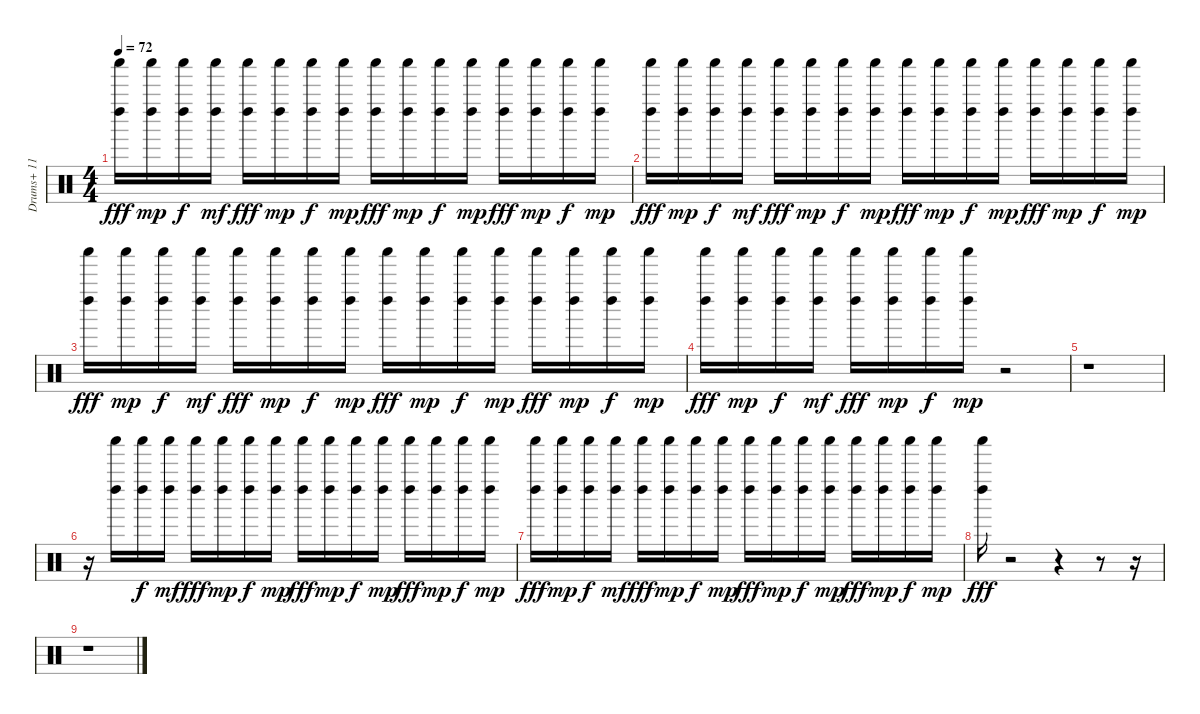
\track ("Drums+ 11" "Drums+ 11") {instrument percussion}
\staff {score}
\articulation defaults
\ts (4 4)
\tempo 72
\clef neutral
\ks c
("Shaker (hit)" "Left Maraca (hit)").16{dy fff} ("Shaker (hit)" "Left Maraca (hit)").16{dy mp} ("Shaker (hit)" "Left Maraca (hit)").16{dy f} ("Shaker (hit)" "Left Maraca (hit)").16{dy mf} ("Shaker (hit)" "Left Maraca (hit)").16{dy fff} ("Shaker (hit)" "Left Maraca (hit)").16{dy mp} ("Shaker (hit)" "Left Maraca (hit)").16{dy f} ("Shaker (hit)" "Left Maraca (hit)").16{dy mp} ("Shaker (hit)" "Left Maraca (hit)").16{dy fff} ("Shaker (hit)" "Left Maraca (hit)").16{dy mp} ("Shaker (hit)" "Left Maraca (hit)").16{dy f} ("Shaker (hit)" "Left Maraca (hit)").16{dy mp} ("Shaker (hit)" "Left Maraca (hit)").16{dy fff} ("Shaker (hit)" "Left Maraca (hit)").16{dy mp} ("Shaker (hit)" "Left Maraca (hit)").16{dy f} ("Shaker (hit)" "Left Maraca (hit)").16{dy mp} |
("Shaker (hit)" "Left Maraca (hit)").16{dy fff} ("Shaker (hit)" "Left Maraca (hit)").16{dy mp} ("Shaker (hit)" "Left Maraca (hit)").16{dy f} ("Shaker (hit)" "Left Maraca (hit)").16{dy mf} ("Shaker (hit)" "Left Maraca (hit)").16{dy fff} ("Shaker (hit)" "Left Maraca (hit)").16{dy mp} ("Shaker (hit)" "Left Maraca (hit)").16{dy f} ("Shaker (hit)" "Left Maraca (hit)").16{dy mp} ("Shaker (hit)" "Left Maraca (hit)").16{dy fff} ("Shaker (hit)" "Left Maraca (hit)").16{dy mp} ("Shaker (hit)" "Left Maraca (hit)").16{dy f} ("Shaker (hit)" "Left Maraca (hit)").16{dy mp} ("Shaker (hit)" "Left Maraca (hit)").16{dy fff} ("Shaker (hit)" "Left Maraca (hit)").16{dy mp} ("Shaker (hit)" "Left Maraca (hit)").16{dy f} ("Shaker (hit)" "Left Maraca (hit)").16{dy mp} |
("Shaker (hit)" "Left Maraca (hit)").16{dy fff} ("Shaker (hit)" "Left Maraca (hit)").16{dy mp} ("Shaker (hit)" "Left Maraca (hit)").16{dy f} ("Shaker (hit)" "Left Maraca (hit)").16{dy mf} ("Shaker (hit)" "Left Maraca (hit)").16{dy fff} ("Shaker (hit)" "Left Maraca (hit)").16{dy mp} ("Shaker (hit)" "Left Maraca (hit)").16{dy f} ("Shaker (hit)" "Left Maraca (hit)").16{dy mp} ("Shaker (hit)" "Left Maraca (hit)").16{dy fff} ("Shaker (hit)" "Left Maraca (hit)").16{dy mp} ("Shaker (hit)" "Left Maraca (hit)").16{dy f} ("Shaker (hit)" "Left Maraca (hit)").16{dy mp} ("Shaker (hit)" "Left Maraca (hit)").16{dy fff} ("Shaker (hit)" "Left Maraca (hit)").16{dy mp} ("Shaker (hit)" "Left Maraca (hit)").16{dy f} ("Shaker (hit)" "Left Maraca (hit)").16{dy mp} |
("Shaker (hit)" "Left Maraca (hit)").16{dy fff} ("Shaker (hit)" "Left Maraca (hit)").16{dy mp} ("Shaker (hit)" "Left Maraca (hit)").16{dy f} ("Shaker (hit)" "Left Maraca (hit)").16{dy mf} ("Shaker (hit)" "Left Maraca (hit)").16{dy fff} ("Shaker (hit)" "Left Maraca (hit)").16{dy mp} ("Shaker (hit)" "Left Maraca (hit)").16{dy f} ("Shaker (hit)" "Left Maraca (hit)").16{dy mp} r.2 |
r.1 |
r.16 ("Shaker (hit)" "Left Maraca (hit)").16 ("Shaker (hit)" "Left Maraca (hit)").16{dy f} ("Shaker (hit)" "Left Maraca (hit)").16{dy mf} ("Shaker (hit)" "Left Maraca (hit)").16{dy fff} ("Shaker (hit)" "Left Maraca (hit)").16{dy mp} ("Shaker (hit)" "Left Maraca (hit)").16{dy f} ("Shaker (hit)" "Left Maraca (hit)").16{dy mp} ("Shaker (hit)" "Left Maraca (hit)").16{dy fff} ("Shaker (hit)" "Left Maraca (hit)").16{dy mp} ("Shaker (hit)" "Left Maraca (hit)").16{dy f} ("Shaker (hit)" "Left Maraca (hit)").16{dy mp} ("Shaker (hit)" "Left Maraca (hit)").16{dy fff} ("Shaker (hit)" "Left Maraca (hit)").16{dy mp} ("Shaker (hit)" "Left Maraca (hit)").16{dy f} ("Shaker (hit)" "Left Maraca (hit)").16{dy mp} |
("Shaker (hit)" "Left Maraca (hit)").16{dy fff} ("Shaker (hit)" "Left Maraca (hit)").16{dy mp} ("Shaker (hit)" "Left Maraca (hit)").16{dy f} ("Shaker (hit)" "Left Maraca (hit)").16{dy mf} ("Shaker (hit)" "Left Maraca (hit)").16{dy fff} ("Shaker (hit)" "Left Maraca (hit)").16{dy mp} ("Shaker (hit)" "Left Maraca (hit)").16{dy f} ("Shaker (hit)" "Left Maraca (hit)").16{dy mp} ("Shaker (hit)" "Left Maraca (hit)").16{dy fff} ("Shaker (hit)" "Left Maraca (hit)").16{dy mp} ("Shaker (hit)" "Left Maraca (hit)").16{dy f} ("Shaker (hit)" "Left Maraca (hit)").16{dy mp} ("Shaker (hit)" "Left Maraca (hit)").16{dy fff} ("Shaker (hit)" "Left Maraca (hit)").16{dy mp} ("Shaker (hit)" "Left Maraca (hit)").16{dy f} ("Shaker (hit)" "Left Maraca (hit)").16{dy mp} |
("Shaker (hit)" "Left Maraca (hit)").16{dy fff} r.2 r.4 r.8 r.16 |
r.1
